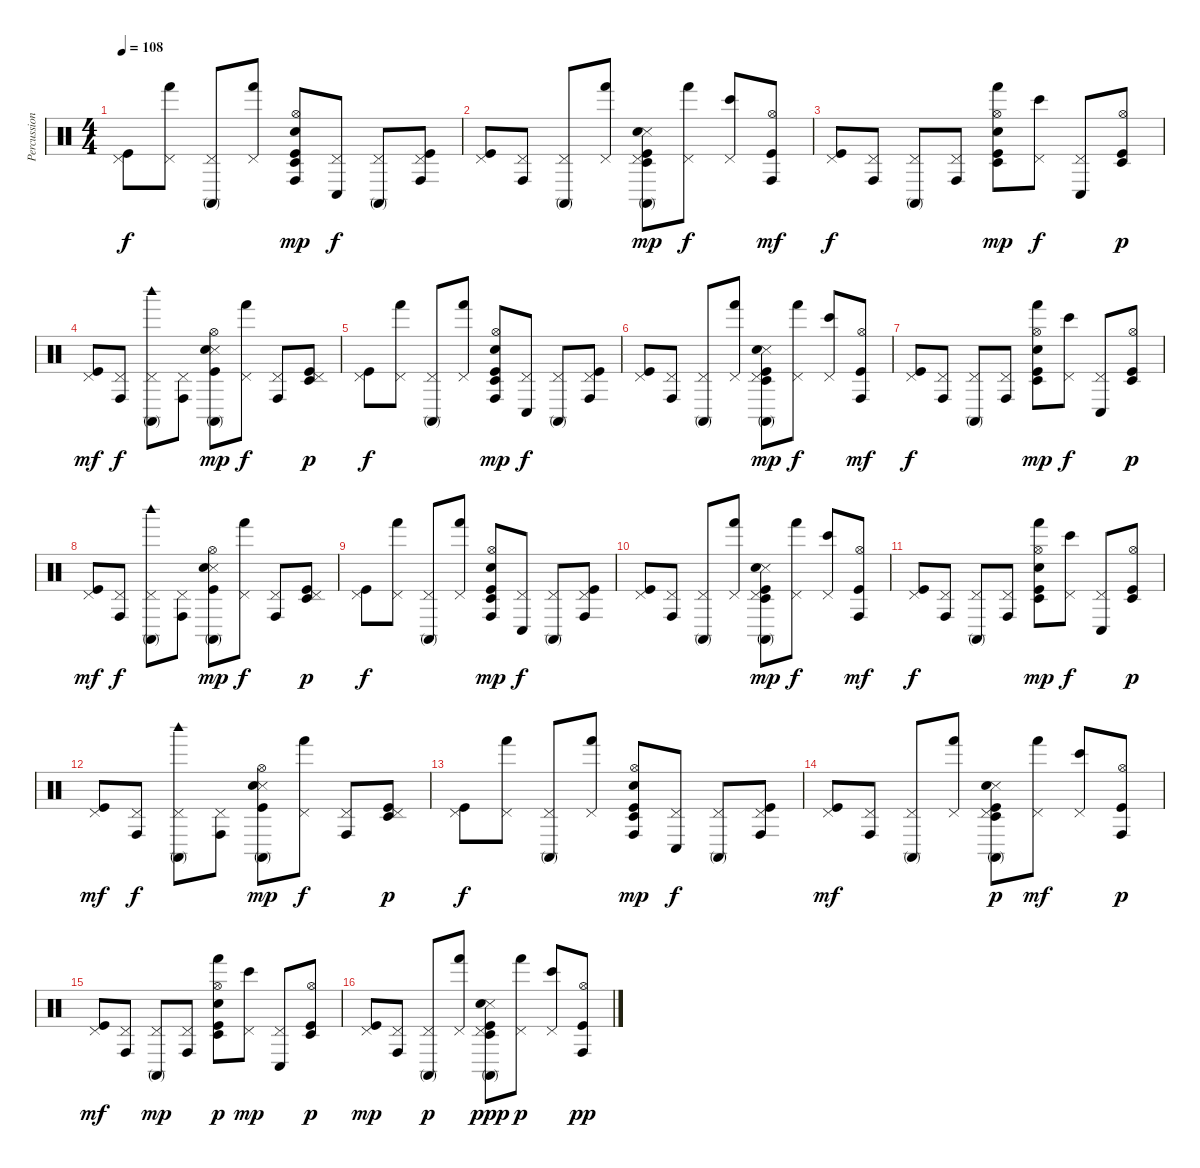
\track ("Percussions" "Percussion") {instrument percussion}
\staff {score}
\articulation defaults
\ts (4 4)
\tempo 108
\clef neutral
\ks c
("Pedal Hi-Hat (hit)" "Kick (hit)").8{dy f} ("Pedal Hi-Hat (hit)" "Hand (hit)").8 ("Pedal Hi-Hat (hit)" "Conga high (mute)").8 ("Pedal Hi-Hat (hit)" "Hand (hit)").8 ("Hi-Hat (open)" "Conga high (hit)" "Kick (hit)" "Snare (hit) 2" "Timbale low (hit)").8{dy mp} ("Pedal Hi-Hat (hit)" "Conga low (hit)").8{dy f} ("Pedal Hi-Hat (hit)" "Conga high (mute)").8 ("Pedal Hi-Hat (hit)" "Kick (hit)" "Conga high (hit)").8 |
("Pedal Hi-Hat (hit)" "Kick (hit)").8 ("Pedal Hi-Hat (hit)" "Conga high (hit)").8 ("Pedal Hi-Hat (hit)" "Conga high (mute)").8 ("Pedal Hi-Hat (hit)" "Hand (hit)").8 ("Pedal Hi-Hat (hit)" "Conga high (mute)" "Snare (side stick) 3" "Kick (hit)" "Snare (hit) 2" "Timbale low (hit)").8{dy mp} ("Pedal Hi-Hat (hit)" "Hand (hit)").8{dy f} ("Pedal Hi-Hat (hit)" "Bongo High (hit)").8 ("Hi-Hat (open)" "Conga high (hit)" "Kick (hit)").8{dy mf} |
("Pedal Hi-Hat (hit)" "Kick (hit)").8{dy f} ("Pedal Hi-Hat (hit)" "Conga high (hit)").8 ("Pedal Hi-Hat (hit)" "Conga high (mute)").8 ("Pedal Hi-Hat (hit)" "Conga high (hit)").8 ("Hi-Hat (open)" "Hand (hit)" "Kick (hit)" "Snare (hit) 2" "Timbale low (hit)").8{dy mp} ("Pedal Hi-Hat (hit)" "Bongo High (hit)").8{dy f} ("Pedal Hi-Hat (hit)" "Conga low (hit)").8 ("Hi-Hat (open)" "Kick (hit)" "Timbale low (hit)").8{dy p} |
("Pedal Hi-Hat (hit)" "Kick (hit)").8{dy mf} ("Pedal Hi-Hat (hit)" "Conga high (hit)").8{dy f} ("Pedal Hi-Hat (hit)" "Conga high (mute)" "Woodblock high (hit)").8 ("Pedal Hi-Hat (hit)" "Conga high (hit)").8 ("Hi-Hat (open)" "Snare (side stick) 3" "Kick (hit)" "Conga high (mute)" "Snare (hit) 2").8{dy mp} ("Pedal Hi-Hat (hit)" "Hand (hit)").8{dy f} ("Pedal Hi-Hat (hit)" "Conga high (hit)").8 ("Pedal Hi-Hat (hit)" "Kick (hit)" "Timbale low (hit)").8{dy p} |
("Pedal Hi-Hat (hit)" "Kick (hit)").8{dy f} ("Pedal Hi-Hat (hit)" "Hand (hit)").8 ("Pedal Hi-Hat (hit)" "Conga high (mute)").8 ("Pedal Hi-Hat (hit)" "Hand (hit)").8 ("Hi-Hat (open)" "Conga high (hit)" "Kick (hit)" "Snare (hit) 2" "Timbale low (hit)").8{dy mp} ("Pedal Hi-Hat (hit)" "Conga low (hit)").8{dy f} ("Pedal Hi-Hat (hit)" "Conga high (mute)").8 ("Pedal Hi-Hat (hit)" "Kick (hit)" "Conga high (hit)").8 |
("Pedal Hi-Hat (hit)" "Kick (hit)").8 ("Pedal Hi-Hat (hit)" "Conga high (hit)").8 ("Pedal Hi-Hat (hit)" "Conga high (mute)").8 ("Pedal Hi-Hat (hit)" "Hand (hit)").8 ("Pedal Hi-Hat (hit)" "Conga high (mute)" "Snare (side stick) 3" "Kick (hit)" "Snare (hit) 2" "Timbale low (hit)").8{dy mp} ("Pedal Hi-Hat (hit)" "Hand (hit)").8{dy f} ("Pedal Hi-Hat (hit)" "Bongo High (hit)").8 ("Hi-Hat (open)" "Conga high (hit)" "Kick (hit)").8{dy mf} |
("Pedal Hi-Hat (hit)" "Kick (hit)").8{dy f} ("Pedal Hi-Hat (hit)" "Conga high (hit)").8 ("Pedal Hi-Hat (hit)" "Conga high (mute)").8 ("Pedal Hi-Hat (hit)" "Conga high (hit)").8 ("Hi-Hat (open)" "Hand (hit)" "Kick (hit)" "Snare (hit) 2" "Timbale low (hit)").8{dy mp} ("Pedal Hi-Hat (hit)" "Bongo High (hit)").8{dy f} ("Pedal Hi-Hat (hit)" "Conga low (hit)").8 ("Hi-Hat (open)" "Kick (hit)" "Timbale low (hit)").8{dy p} |
("Pedal Hi-Hat (hit)" "Kick (hit)").8{dy mf} ("Pedal Hi-Hat (hit)" "Conga high (hit)").8{dy f} ("Pedal Hi-Hat (hit)" "Conga high (mute)" "Woodblock high (hit)").8 ("Pedal Hi-Hat (hit)" "Conga high (hit)").8 ("Hi-Hat (open)" "Snare (side stick) 3" "Kick (hit)" "Conga high (mute)" "Snare (hit) 2").8{dy mp} ("Pedal Hi-Hat (hit)" "Hand (hit)").8{dy f} ("Pedal Hi-Hat (hit)" "Conga high (hit)").8 ("Pedal Hi-Hat (hit)" "Kick (hit)" "Timbale low (hit)").8{dy p} |
("Pedal Hi-Hat (hit)" "Kick (hit)").8{dy f} ("Pedal Hi-Hat (hit)" "Hand (hit)").8 ("Pedal Hi-Hat (hit)" "Conga high (mute)").8 ("Pedal Hi-Hat (hit)" "Hand (hit)").8 ("Hi-Hat (open)" "Conga high (hit)" "Kick (hit)" "Snare (hit) 2" "Timbale low (hit)").8{dy mp} ("Pedal Hi-Hat (hit)" "Conga low (hit)").8{dy f} ("Pedal Hi-Hat (hit)" "Conga high (mute)").8 ("Pedal Hi-Hat (hit)" "Kick (hit)" "Conga high (hit)").8 |
("Pedal Hi-Hat (hit)" "Kick (hit)").8 ("Pedal Hi-Hat (hit)" "Conga high (hit)").8 ("Pedal Hi-Hat (hit)" "Conga high (mute)").8 ("Pedal Hi-Hat (hit)" "Hand (hit)").8 ("Pedal Hi-Hat (hit)" "Conga high (mute)" "Snare (side stick) 3" "Kick (hit)" "Snare (hit) 2" "Timbale low (hit)").8{dy mp} ("Pedal Hi-Hat (hit)" "Hand (hit)").8{dy f} ("Pedal Hi-Hat (hit)" "Bongo High (hit)").8 ("Hi-Hat (open)" "Conga high (hit)" "Kick (hit)").8{dy mf} |
("Pedal Hi-Hat (hit)" "Kick (hit)").8{dy f} ("Pedal Hi-Hat (hit)" "Conga high (hit)").8 ("Pedal Hi-Hat (hit)" "Conga high (mute)").8 ("Pedal Hi-Hat (hit)" "Conga high (hit)").8 ("Hi-Hat (open)" "Hand (hit)" "Kick (hit)" "Snare (hit) 2" "Timbale low (hit)").8{dy mp} ("Pedal Hi-Hat (hit)" "Bongo High (hit)").8{dy f} ("Pedal Hi-Hat (hit)" "Conga low (hit)").8 ("Hi-Hat (open)" "Kick (hit)" "Timbale low (hit)").8{dy p} |
("Pedal Hi-Hat (hit)" "Kick (hit)").8{dy mf} ("Pedal Hi-Hat (hit)" "Conga high (hit)").8{dy f} ("Pedal Hi-Hat (hit)" "Conga high (mute)" "Woodblock high (hit)").8 ("Pedal Hi-Hat (hit)" "Conga high (hit)").8 ("Hi-Hat (open)" "Snare (side stick) 3" "Kick (hit)" "Conga high (mute)" "Snare (hit) 2").8{dy mp} ("Pedal Hi-Hat (hit)" "Hand (hit)").8{dy f} ("Pedal Hi-Hat (hit)" "Conga high (hit)").8 ("Pedal Hi-Hat (hit)" "Kick (hit)" "Timbale low (hit)").8{dy p} |
("Pedal Hi-Hat (hit)" "Kick (hit)").8{dy f} ("Pedal Hi-Hat (hit)" "Hand (hit)").8 ("Pedal Hi-Hat (hit)" "Conga high (mute)").8 ("Pedal Hi-Hat (hit)" "Hand (hit)").8 ("Hi-Hat (open)" "Conga high (hit)" "Kick (hit)" "Snare (hit) 2" "Timbale low (hit)").8{dy mp} ("Pedal Hi-Hat (hit)" "Conga low (hit)").8{dy f} ("Pedal Hi-Hat (hit)" "Conga high (mute)").8 ("Pedal Hi-Hat (hit)" "Kick (hit)" "Conga high (hit)").8 |
("Pedal Hi-Hat (hit)" "Kick (hit)").8{dy mf} ("Pedal Hi-Hat (hit)" "Conga high (hit)").8 ("Pedal Hi-Hat (hit)" "Conga high (mute)").8 ("Pedal Hi-Hat (hit)" "Hand (hit)").8 ("Pedal Hi-Hat (hit)" "Conga high (mute)" "Snare (side stick) 3" "Kick (hit)" "Snare (hit) 2" "Timbale low (hit)").8{dy p} ("Pedal Hi-Hat (hit)" "Hand (hit)").8{dy mf} ("Pedal Hi-Hat (hit)" "Bongo High (hit)").8 ("Hi-Hat (open)" "Conga high (hit)" "Kick (hit)").8{dy p} |
("Pedal Hi-Hat (hit)" "Kick (hit)").8{dy mf} ("Pedal Hi-Hat (hit)" "Conga high (hit)").8 ("Pedal Hi-Hat (hit)" "Conga high (mute)").8{dy mp} ("Pedal Hi-Hat (hit)" "Conga high (hit)").8 ("Hi-Hat (open)" "Hand (hit)" "Kick (hit)" "Snare (hit) 2" "Timbale low (hit)").8{dy p} ("Pedal Hi-Hat (hit)" "Bongo High (hit)").8{dy mp} ("Pedal Hi-Hat (hit)" "Conga low (hit)").8 ("Hi-Hat (open)" "Kick (hit)" "Timbale low (hit)").8{dy p} |
("Pedal Hi-Hat (hit)" "Kick (hit)").8{dy mp} ("Pedal Hi-Hat (hit)" "Conga high (hit)").8 ("Pedal Hi-Hat (hit)" "Conga high (mute)").8{dy p} ("Pedal Hi-Hat (hit)" "Hand (hit)").8 ("Pedal Hi-Hat (hit)" "Conga high (mute)" "Snare (side stick) 3" "Kick (hit)" "Snare (hit) 2" "Timbale low (hit)").8{dy ppp} ("Pedal Hi-Hat (hit)" "Hand (hit)").8{dy p} ("Pedal Hi-Hat (hit)" "Bongo High (hit)").8 ("Hi-Hat (open)" "Conga high (hit)" "Kick (hit)").8{dy pp}
